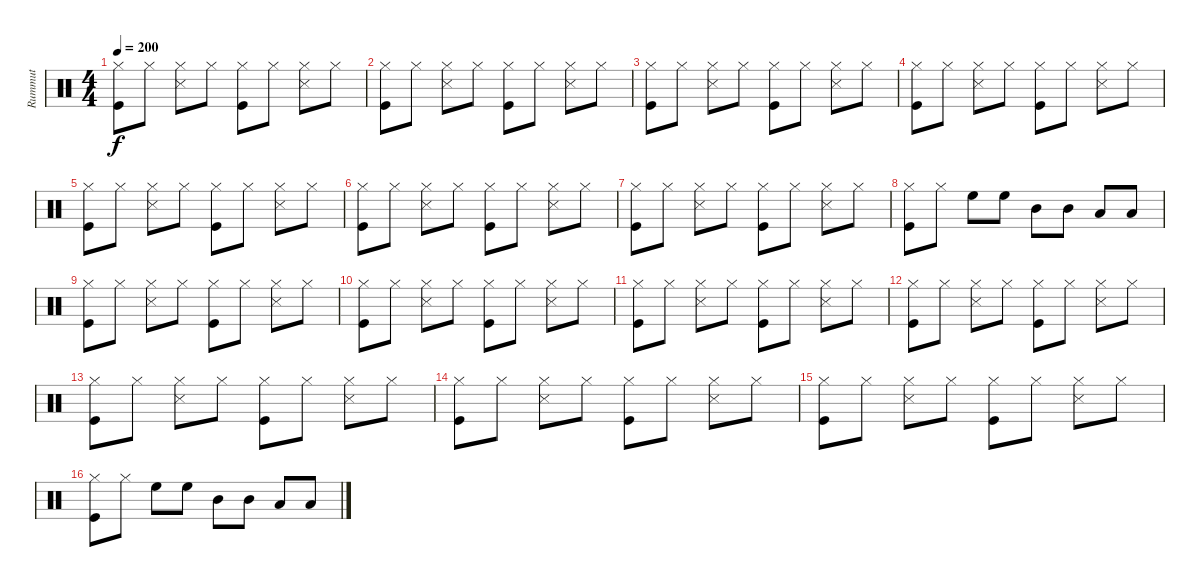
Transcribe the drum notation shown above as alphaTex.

\track ("Rummut" "Rummut") {instrument percussion}
\staff {score}
\articulation defaults
\ts (4 4)
\tempo 200
\clef neutral
\ks c
("Hi-Hat (closed)" "Kick (hit)").8{dy f} "Hi-Hat (closed)".8 ("Hi-Hat (closed)" "Snare (side stick) 3").8 "Hi-Hat (closed)".8 ("Hi-Hat (closed)" "Kick (hit)").8 "Hi-Hat (closed)".8 ("Hi-Hat (closed)" "Snare (side stick) 3").8 "Hi-Hat (closed)".8 |
("Hi-Hat (closed)" "Kick (hit)").8 "Hi-Hat (closed)".8 ("Hi-Hat (closed)" "Snare (side stick) 3").8 "Hi-Hat (closed)".8 ("Hi-Hat (closed)" "Kick (hit)").8 "Hi-Hat (closed)".8 ("Hi-Hat (closed)" "Snare (side stick) 3").8 "Hi-Hat (closed)".8 |
("Hi-Hat (closed)" "Kick (hit)").8 "Hi-Hat (closed)".8 ("Hi-Hat (closed)" "Snare (side stick) 3").8 "Hi-Hat (closed)".8 ("Hi-Hat (closed)" "Kick (hit)").8 "Hi-Hat (closed)".8 ("Hi-Hat (closed)" "Snare (side stick) 3").8 "Hi-Hat (closed)".8 |
("Hi-Hat (closed)" "Kick (hit)").8 "Hi-Hat (closed)".8 ("Hi-Hat (closed)" "Snare (side stick) 3").8 "Hi-Hat (closed)".8 ("Hi-Hat (closed)" "Kick (hit)").8 "Hi-Hat (closed)".8 ("Hi-Hat (closed)" "Snare (side stick) 3").8 "Hi-Hat (closed)".8 |
("Hi-Hat (closed)" "Kick (hit)").8 "Hi-Hat (closed)".8 ("Hi-Hat (closed)" "Snare (side stick) 3").8 "Hi-Hat (closed)".8 ("Hi-Hat (closed)" "Kick (hit)").8 "Hi-Hat (closed)".8 ("Hi-Hat (closed)" "Snare (side stick) 3").8 "Hi-Hat (closed)".8 |
("Hi-Hat (closed)" "Kick (hit)").8 "Hi-Hat (closed)".8 ("Hi-Hat (closed)" "Snare (side stick) 3").8 "Hi-Hat (closed)".8 ("Hi-Hat (closed)" "Kick (hit)").8 "Hi-Hat (closed)".8 ("Hi-Hat (closed)" "Snare (side stick) 3").8 "Hi-Hat (closed)".8 |
("Hi-Hat (closed)" "Kick (hit)").8 "Hi-Hat (closed)".8 ("Hi-Hat (closed)" "Snare (side stick) 3").8 "Hi-Hat (closed)".8 ("Hi-Hat (closed)" "Kick (hit)").8 "Hi-Hat (closed)".8 ("Hi-Hat (closed)" "Snare (side stick) 3").8 "Hi-Hat (closed)".8 |
("Hi-Hat (closed)" "Kick (hit)").8 "Hi-Hat (closed)".8 "High Floor Tom (hit)".8 "High Floor Tom (hit)".8 "Mid Tom (hit)".8 "Mid Tom (hit)".8 "Low Tom (hit)".8 "Low Tom (hit)".8 |
("Hi-Hat (closed)" "Kick (hit)").8 "Hi-Hat (closed)".8 ("Hi-Hat (closed)" "Snare (side stick) 3").8 "Hi-Hat (closed)".8 ("Hi-Hat (closed)" "Kick (hit)").8 "Hi-Hat (closed)".8 ("Hi-Hat (closed)" "Snare (side stick) 3").8 "Hi-Hat (closed)".8 |
("Hi-Hat (closed)" "Kick (hit)").8 "Hi-Hat (closed)".8 ("Hi-Hat (closed)" "Snare (side stick) 3").8 "Hi-Hat (closed)".8 ("Hi-Hat (closed)" "Kick (hit)").8 "Hi-Hat (closed)".8 ("Hi-Hat (closed)" "Snare (side stick) 3").8 "Hi-Hat (closed)".8 |
("Hi-Hat (closed)" "Kick (hit)").8 "Hi-Hat (closed)".8 ("Hi-Hat (closed)" "Snare (side stick) 3").8 "Hi-Hat (closed)".8 ("Hi-Hat (closed)" "Kick (hit)").8 "Hi-Hat (closed)".8 ("Hi-Hat (closed)" "Snare (side stick) 3").8 "Hi-Hat (closed)".8 |
("Hi-Hat (closed)" "Kick (hit)").8 "Hi-Hat (closed)".8 ("Hi-Hat (closed)" "Snare (side stick) 3").8 "Hi-Hat (closed)".8 ("Hi-Hat (closed)" "Kick (hit)").8 "Hi-Hat (closed)".8 ("Hi-Hat (closed)" "Snare (side stick) 3").8 "Hi-Hat (closed)".8 |
("Hi-Hat (closed)" "Kick (hit)").8 "Hi-Hat (closed)".8 ("Hi-Hat (closed)" "Snare (side stick) 3").8 "Hi-Hat (closed)".8 ("Hi-Hat (closed)" "Kick (hit)").8 "Hi-Hat (closed)".8 ("Hi-Hat (closed)" "Snare (side stick) 3").8 "Hi-Hat (closed)".8 |
("Hi-Hat (closed)" "Kick (hit)").8 "Hi-Hat (closed)".8 ("Hi-Hat (closed)" "Snare (side stick) 3").8 "Hi-Hat (closed)".8 ("Hi-Hat (closed)" "Kick (hit)").8 "Hi-Hat (closed)".8 ("Hi-Hat (closed)" "Snare (side stick) 3").8 "Hi-Hat (closed)".8 |
("Hi-Hat (closed)" "Kick (hit)").8 "Hi-Hat (closed)".8 ("Hi-Hat (closed)" "Snare (side stick) 3").8 "Hi-Hat (closed)".8 ("Hi-Hat (closed)" "Kick (hit)").8 "Hi-Hat (closed)".8 ("Hi-Hat (closed)" "Snare (side stick) 3").8 "Hi-Hat (closed)".8 |
("Hi-Hat (closed)" "Kick (hit)").8 "Hi-Hat (closed)".8 "High Floor Tom (hit)".8 "High Floor Tom (hit)".8 "Mid Tom (hit)".8 "Mid Tom (hit)".8 "Low Tom (hit)".8 "Low Tom (hit)".8
